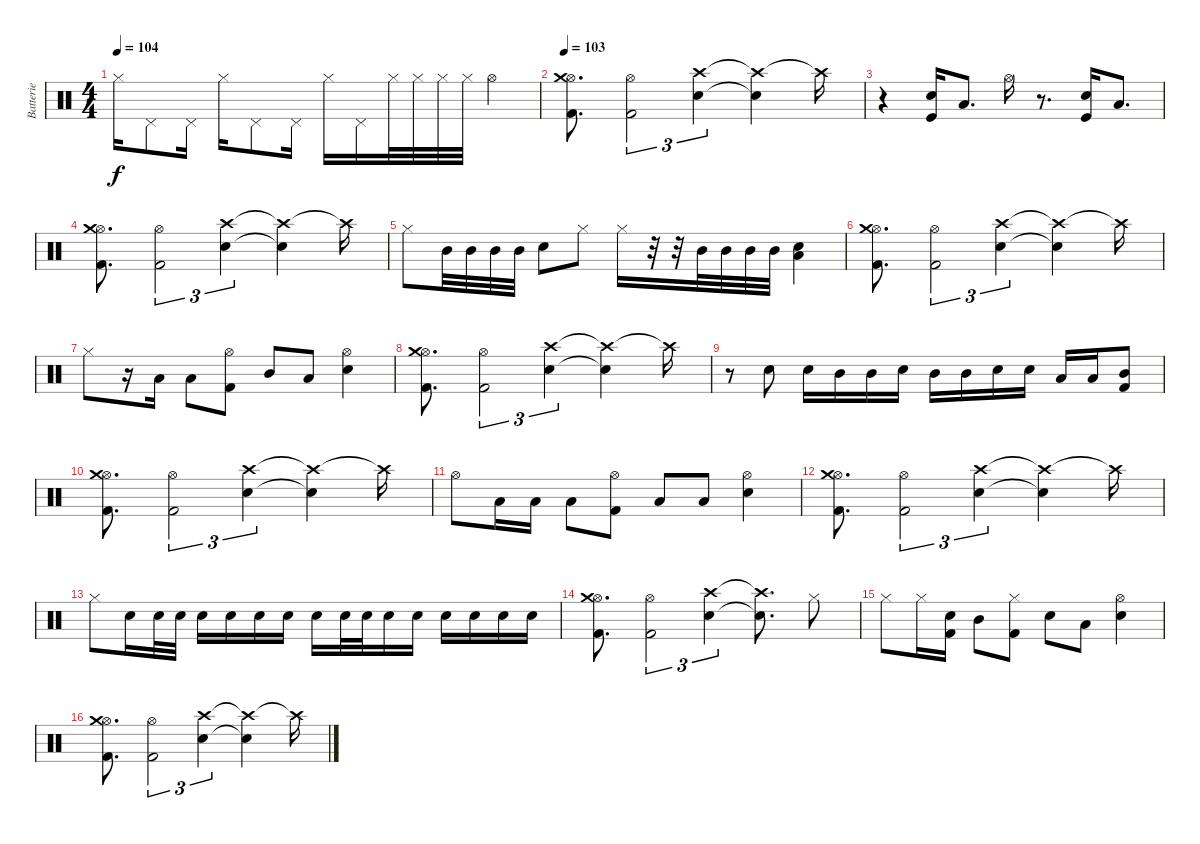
\track ("Batterie" "Batterie") {instrument percussion}
\staff {score}
\articulation defaults
\ts (4 4)
\tempo 104
\clef neutral
\ks c "Hi-Hat (closed)".16{dy f} "Pedal Hi-Hat (hit)".8 "Pedal Hi-Hat (hit)".16 "Hi-Hat (closed)".16 "Pedal Hi-Hat (hit)".8 "Pedal Hi-Hat (hit)".16 "Hi-Hat (closed)".16 "Pedal Hi-Hat (hit)".16 "Hi-Hat (closed)".32 "Hi-Hat (closed)".32 "Hi-Hat (closed)".32 "Hi-Hat (closed)".32 "Hi-Hat (open)".4
|
\tempo 103
("Hi-Hat (open)" "Crash medium (hit)" "Kick (hit) 2").8{d} ("Hi-Hat (open)" "Kick (hit) 2").2{tu (3 2)} ("Crash high (hit)" "Electric Snare (hit)").4{tu (3 2)} ("Crash high (hit)"{t} "Electric Snare (hit)"{t}).4 "Crash high (hit)"{t}.16 |
r.4 ("Electric Snare (hit)" "Kick (hit)").16 "Low Tom (hit)".8{d} "Hi-Hat (open)".16 r.8{d} ("Electric Snare (hit)" "Kick (hit)").16 "Low Tom (hit)".8{d} |
("Hi-Hat (open)" "Crash medium (hit)" "Kick (hit) 2").8{d} ("Hi-Hat (open)" "Kick (hit) 2").2{tu (3 2)} ("Crash high (hit)" "Electric Snare (hit)").4{tu (3 2)} ("Crash high (hit)"{t} "Electric Snare (hit)"{t}).4 "Crash high (hit)"{t}.16 |
"Hi-Hat (closed)".8 "Mid Tom (hit)".32 "Mid Tom (hit)".32 "Mid Tom (hit)".32 "Mid Tom (hit)".32 "Electric Snare (hit)".8 "Hi-Hat (closed)".8 "Hi-Hat (closed)".16 r.32 r.32 "Mid Tom (hit)".32 "Mid Tom (hit)".32 "Mid Tom (hit)".32 "Mid Tom (hit)".32 ("Low Tom (hit)" "Snare (hit) 2").4 |
("Hi-Hat (open)" "Crash medium (hit)" "Kick (hit) 2").8{d} ("Hi-Hat (open)" "Kick (hit) 2").2{tu (3 2)} ("Crash high (hit)" "Electric Snare (hit)").4{tu (3 2)} ("Crash high (hit)"{t} "Electric Snare (hit)"{t}).4 "Crash high (hit)"{t}.16 |
"Hi-Hat (closed)".8 r.16 "Low Tom (hit)".16 "Low Tom (hit)".8 ("Hi-Hat (open)" "Kick (hit) 2").8 "Mid Tom (hit)".8 "Low Tom (hit)".8 ("Hi-Hat (open)" "Electric Snare (hit)").4 |
("Hi-Hat (open)" "Crash medium (hit)" "Kick (hit) 2").8{d} ("Hi-Hat (open)" "Kick (hit) 2").2{tu (3 2)} ("Crash high (hit)" "Electric Snare (hit)").4{tu (3 2)} ("Crash high (hit)"{t} "Electric Snare (hit)"{t}).4 "Crash high (hit)"{t}.16 |
r.8 "Electric Snare (hit)".8 "Electric Snare (hit)".16 "Mid Tom (hit)".16 "Mid Tom (hit)".16 "Electric Snare (hit)".16 "Mid Tom (hit)".16 "Mid Tom (hit)".16 "Electric Snare (hit)".16 "Electric Snare (hit)".16 "Low Tom (hit)".16 "Low Tom (hit)".16 ("Mid Tom (hit)" "Kick (hit) 2").8 |
("Hi-Hat (open)" "Crash medium (hit)" "Kick (hit) 2").8{d} ("Hi-Hat (open)" "Kick (hit) 2").2{tu (3 2)} ("Crash high (hit)" "Electric Snare (hit)").4{tu (3 2)} ("Crash high (hit)"{t} "Electric Snare (hit)"{t}).4 "Crash high (hit)"{t}.16 |
"Hi-Hat (open)".8 "Low Tom (hit)".16 "Low Tom (hit)".16 "Low Tom (hit)".8 ("Hi-Hat (open)" "Kick (hit) 2").8 "Low Tom (hit)".8 "Low Tom (hit)".8 ("Hi-Hat (open)" "Electric Snare (hit)").4 |
("Hi-Hat (open)" "Crash medium (hit)" "Kick (hit) 2").8{d} ("Hi-Hat (open)" "Kick (hit) 2").2{tu (3 2)} ("Crash high (hit)" "Electric Snare (hit)").4{tu (3 2)} ("Crash high (hit)"{t} "Electric Snare (hit)"{t}).4 "Crash high (hit)"{t}.16 |
"Hi-Hat (closed)".8 "Electric Snare (hit)".16 "Electric Snare (hit)".32 "Electric Snare (hit)".32 "Electric Snare (hit)".16 "Electric Snare (hit)".16 "Electric Snare (hit)".16 "Electric Snare (hit)".16 "Electric Snare (hit)".16 "Electric Snare (hit)".32 "Electric Snare (hit)".32 "Electric Snare (hit)".16 "Electric Snare (hit)".16 "Electric Snare (hit)".16 "Electric Snare (hit)".16 "Electric Snare (hit)".16 "Electric Snare (hit)".16 |
("Hi-Hat (open)" "Crash medium (hit)" "Kick (hit) 2").8{d} ("Hi-Hat (open)" "Kick (hit) 2").2{tu (3 2)} ("Crash high (hit)" "Electric Snare (hit)").4{tu (3 2)} ("Crash high (hit)"{t} "Electric Snare (hit)"{t}).8{d} "Hi-Hat (closed)".8 |
"Hi-Hat (closed)".8 "Hi-Hat (closed)".16 ("Electric Snare (hit)" "Kick (hit) 2").16 "Mid Tom (hit)".8 ("Hi-Hat (closed)" "Kick (hit) 2").8 "Electric Snare (hit)".8 "Low Tom (hit)".8 ("Hi-Hat (open)" "Electric Snare (hit)").4 |
("Hi-Hat (open)" "Crash medium (hit)" "Kick (hit) 2").8{d} ("Hi-Hat (open)" "Kick (hit) 2").2{tu (3 2)} ("Crash high (hit)" "Electric Snare (hit)").4{tu (3 2)} ("Crash high (hit)"{t} "Electric Snare (hit)"{t}).4 "Crash high (hit)"{t}.16
